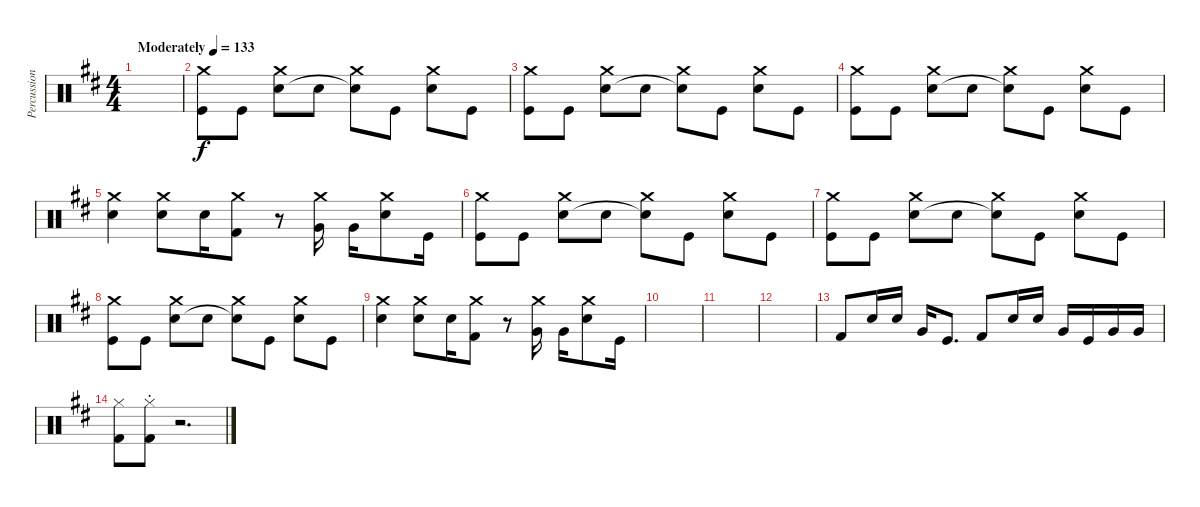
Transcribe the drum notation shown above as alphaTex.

\track ("Percussion" "Percussion") {instrument percussion}
\staff {score}
\articulation defaults
\ts (4 4)
\tempo (133 "Moderately")
\clef neutral
\ks d
|
("Crash medium (hit)" "Kick (hit)").8 "Kick (hit)".8 ("Crash medium (hit)" "Electric Snare (hit)").8 "Snare (hit) 2".8 ("Crash medium (hit)" "Snare (hit)"{t}).8 "Kick (hit)".8 ("Crash medium (hit)" "Snare (hit) 2").8 "Kick (hit)".8 |
("Crash medium (hit)" "Kick (hit)").8 "Kick (hit)".8 ("Crash medium (hit)" "Electric Snare (hit)").8 "Snare (hit) 2".8 ("Crash medium (hit)" "Snare (hit)"{t}).8 "Kick (hit)".8 ("Crash medium (hit)" "Snare (hit) 2").8 "Kick (hit)".8 |
("Crash medium (hit)" "Kick (hit)").8 "Kick (hit)".8 ("Crash medium (hit)" "Electric Snare (hit)").8 "Snare (hit) 2".8 ("Crash medium (hit)" "Snare (hit)"{t}).8 "Kick (hit)".8 ("Crash medium (hit)" "Snare (hit) 2").8 "Kick (hit)".8 |
("Crash medium (hit)" "Snare (hit) 2").4 ("Crash medium (hit)" "Electric Snare (hit)").8 "Electric Snare (hit)".16 ("Crash medium (hit)" "Kick (hit) 2").8 r.8 ("Crash medium (hit)" "Very Low Tom (hit)").16 "Very Low Tom (hit)".16 ("Crash medium (hit)" "Snare (hit) 2").8 "Kick (hit)".16 |
("Crash medium (hit)" "Kick (hit)").8 "Kick (hit)".8 ("Crash medium (hit)" "Electric Snare (hit)").8 "Snare (hit) 2".8 ("Crash medium (hit)" "Snare (hit)"{t}).8 "Kick (hit)".8 ("Crash medium (hit)" "Snare (hit) 2").8 "Kick (hit)".8 |
("Crash medium (hit)" "Kick (hit)").8 "Kick (hit)".8 ("Crash medium (hit)" "Electric Snare (hit)").8 "Snare (hit) 2".8 ("Crash medium (hit)" "Snare (hit)"{t}).8 "Kick (hit)".8 ("Crash medium (hit)" "Snare (hit) 2").8 "Kick (hit)".8 |
("Crash medium (hit)" "Kick (hit)").8 "Kick (hit)".8 ("Crash medium (hit)" "Electric Snare (hit)").8 "Snare (hit) 2".8 ("Crash medium (hit)" "Snare (hit)"{t}).8 "Kick (hit)".8 ("Crash medium (hit)" "Snare (hit) 2").8 "Kick (hit)".8 |
("Crash medium (hit)" "Snare (hit) 2").4 ("Crash medium (hit)" "Electric Snare (hit)").8 "Electric Snare (hit)".16 ("Crash medium (hit)" "Kick (hit) 2").8 r.8 ("Crash medium (hit)" "Very Low Tom (hit)").16 "Very Low Tom (hit)".16 ("Crash medium (hit)" "Snare (hit) 2").8 "Kick (hit)".16 |
|
|
|
"Kick (hit) 2".8 "Electric Snare (hit)".16 "Snare (hit) 2".16 "Very Low Tom (hit)".16 "Kick (hit)".8{d} "Kick (hit) 2".8 "Electric Snare (hit)".16 "Snare (hit) 2".16 "Very Low Tom (hit)".16 "Kick (hit)".16 "Very Low Tom (hit)".16 "Very Low Tom (hit)".16 |
("Hi-Hat (closed)" "Kick (hit) 2").8 ("Hi-Hat (closed)"{st} "Kick (hit) 2"{st}).8 r.2{d}
